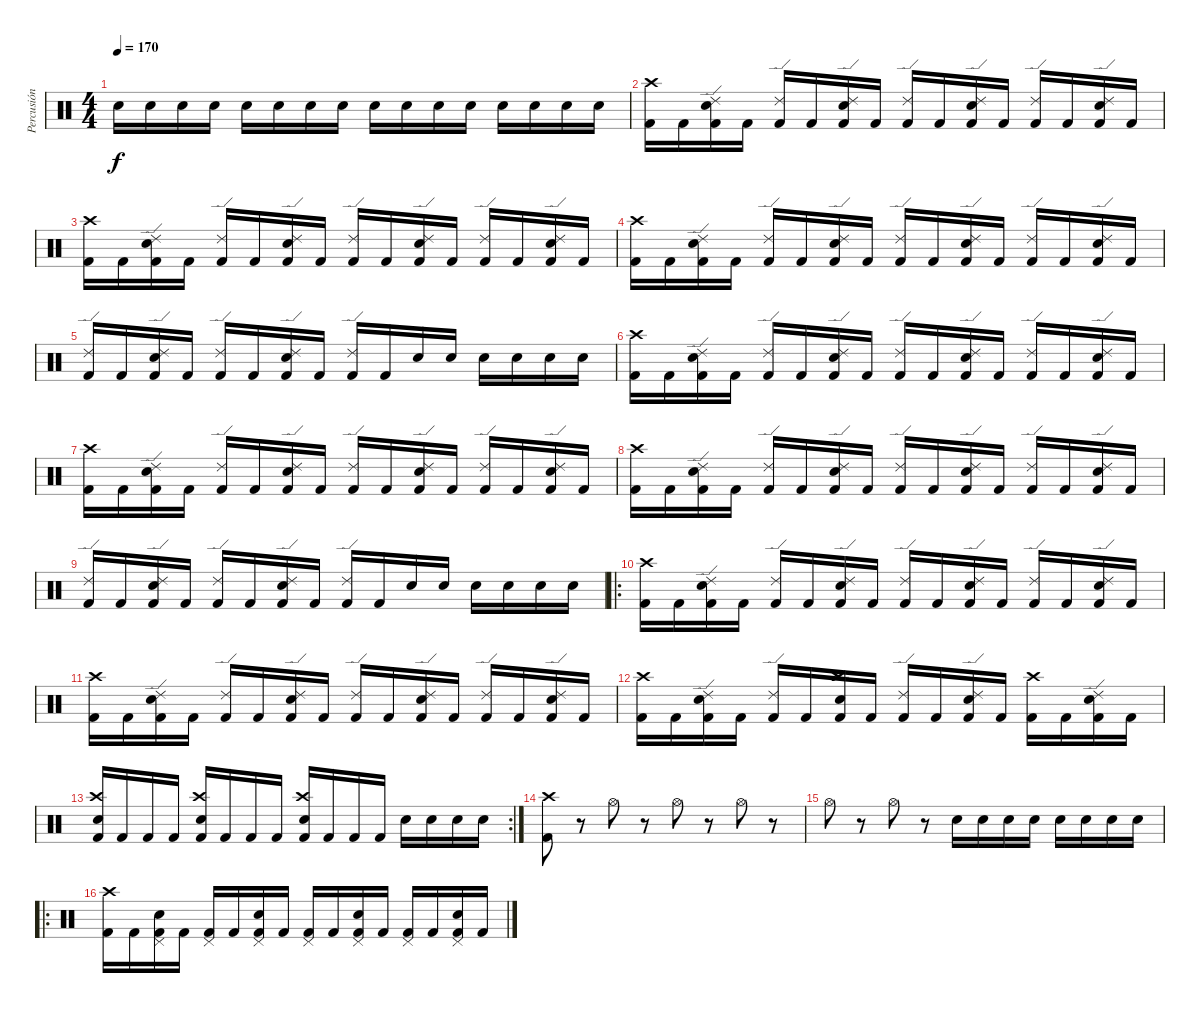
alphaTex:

\track ("Percusión" "Percusión") {instrument percussion}
\staff {score}
\articulation defaults
\ts (4 4)
\tempo 170
\clef neutral
\ks c "Electric Snare (hit)".16{dy f} "Electric Snare (hit)".16 "Electric Snare (hit)".16 "Electric Snare (hit)".16 "Electric Snare (hit)".16 "Electric Snare (hit)".16 "Electric Snare (hit)".16 "Electric Snare (hit)".16 "Electric Snare (hit)".16 "Electric Snare (hit)".16 "Electric Snare (hit)".16 "Electric Snare (hit)".16 "Electric Snare (hit)".16 "Electric Snare (hit)".16 "Electric Snare (hit)".16 "Electric Snare (hit)".16
|
("Crash high (hit)" "Kick (hit) 2").16 "Kick (hit) 2".16 ("Ride (edge) 2" "Kick (hit) 2" "Electric Snare (hit)").16 "Kick (hit) 2".16 ("Ride (edge) 2" "Kick (hit) 2").16 "Kick (hit) 2".16 ("Ride (edge) 2" "Kick (hit) 2" "Electric Snare (hit)").16 "Kick (hit) 2".16 ("Ride (edge) 2" "Kick (hit) 2").16 "Kick (hit) 2".16 ("Ride (edge) 2" "Kick (hit) 2" "Electric Snare (hit)").16 "Kick (hit) 2".16 ("Ride (edge) 2" "Kick (hit) 2").16 "Kick (hit) 2".16 ("Ride (edge) 2" "Kick (hit) 2" "Electric Snare (hit)").16 "Kick (hit) 2".16 |
("Crash high (hit)" "Kick (hit) 2").16 "Kick (hit) 2".16 ("Ride (edge) 2" "Kick (hit) 2" "Electric Snare (hit)").16 "Kick (hit) 2".16 ("Ride (edge) 2" "Kick (hit) 2").16 "Kick (hit) 2".16 ("Ride (edge) 2" "Kick (hit) 2" "Electric Snare (hit)").16 "Kick (hit) 2".16 ("Ride (edge) 2" "Kick (hit) 2").16 "Kick (hit) 2".16 ("Ride (edge) 2" "Kick (hit) 2" "Electric Snare (hit)").16 "Kick (hit) 2".16 ("Ride (edge) 2" "Kick (hit) 2").16 "Kick (hit) 2".16 ("Ride (edge) 2" "Kick (hit) 2" "Electric Snare (hit)").16 "Kick (hit) 2".16 |
("Crash high (hit)" "Kick (hit) 2").16 "Kick (hit) 2".16 ("Ride (edge) 2" "Kick (hit) 2" "Electric Snare (hit)").16 "Kick (hit) 2".16 ("Ride (edge) 2" "Kick (hit) 2").16 "Kick (hit) 2".16 ("Ride (edge) 2" "Kick (hit) 2" "Electric Snare (hit)").16 "Kick (hit) 2".16 ("Ride (edge) 2" "Kick (hit) 2").16 "Kick (hit) 2".16 ("Ride (edge) 2" "Kick (hit) 2" "Electric Snare (hit)").16 "Kick (hit) 2".16 ("Ride (edge) 2" "Kick (hit) 2").16 "Kick (hit) 2".16 ("Ride (edge) 2" "Kick (hit) 2" "Electric Snare (hit)").16 "Kick (hit) 2".16 |
("Ride (edge) 2" "Kick (hit) 2").16 "Kick (hit) 2".16 ("Ride (edge) 2" "Kick (hit) 2" "Electric Snare (hit)").16 "Kick (hit) 2".16 ("Ride (edge) 2" "Kick (hit) 2").16 "Kick (hit) 2".16 ("Ride (edge) 2" "Kick (hit) 2" "Electric Snare (hit)").16 "Kick (hit) 2".16 ("Ride (edge) 2" "Kick (hit) 2").16 "Kick (hit) 2".16 "Electric Snare (hit)".16 "Electric Snare (hit)".16 "Electric Snare (hit)".16 "Electric Snare (hit)".16 "Electric Snare (hit)".16 "Electric Snare (hit)".16 |
("Crash high (hit)" "Kick (hit) 2").16 "Kick (hit) 2".16 ("Ride (edge) 2" "Kick (hit) 2" "Electric Snare (hit)").16 "Kick (hit) 2".16 ("Ride (edge) 2" "Kick (hit) 2").16 "Kick (hit) 2".16 ("Ride (edge) 2" "Kick (hit) 2" "Electric Snare (hit)").16 "Kick (hit) 2".16 ("Ride (edge) 2" "Kick (hit) 2").16 "Kick (hit) 2".16 ("Ride (edge) 2" "Kick (hit) 2" "Electric Snare (hit)").16 "Kick (hit) 2".16 ("Ride (edge) 2" "Kick (hit) 2").16 "Kick (hit) 2".16 ("Ride (edge) 2" "Kick (hit) 2" "Electric Snare (hit)").16 "Kick (hit) 2".16 |
("Crash high (hit)" "Kick (hit) 2").16 "Kick (hit) 2".16 ("Ride (edge) 2" "Kick (hit) 2" "Electric Snare (hit)").16 "Kick (hit) 2".16 ("Ride (edge) 2" "Kick (hit) 2").16 "Kick (hit) 2".16 ("Ride (edge) 2" "Kick (hit) 2" "Electric Snare (hit)").16 "Kick (hit) 2".16 ("Ride (edge) 2" "Kick (hit) 2").16 "Kick (hit) 2".16 ("Ride (edge) 2" "Kick (hit) 2" "Electric Snare (hit)").16 "Kick (hit) 2".16 ("Ride (edge) 2" "Kick (hit) 2").16 "Kick (hit) 2".16 ("Ride (edge) 2" "Kick (hit) 2" "Electric Snare (hit)").16 "Kick (hit) 2".16 |
("Crash high (hit)" "Kick (hit) 2").16 "Kick (hit) 2".16 ("Ride (edge) 2" "Kick (hit) 2" "Electric Snare (hit)").16 "Kick (hit) 2".16 ("Ride (edge) 2" "Kick (hit) 2").16 "Kick (hit) 2".16 ("Ride (edge) 2" "Kick (hit) 2" "Electric Snare (hit)").16 "Kick (hit) 2".16 ("Ride (edge) 2" "Kick (hit) 2").16 "Kick (hit) 2".16 ("Ride (edge) 2" "Kick (hit) 2" "Electric Snare (hit)").16 "Kick (hit) 2".16 ("Ride (edge) 2" "Kick (hit) 2").16 "Kick (hit) 2".16 ("Ride (edge) 2" "Kick (hit) 2" "Electric Snare (hit)").16 "Kick (hit) 2".16 |
("Ride (edge) 2" "Kick (hit) 2").16 "Kick (hit) 2".16 ("Ride (edge) 2" "Kick (hit) 2" "Electric Snare (hit)").16 "Kick (hit) 2".16 ("Ride (edge) 2" "Kick (hit) 2").16 "Kick (hit) 2".16 ("Ride (edge) 2" "Kick (hit) 2" "Electric Snare (hit)").16 "Kick (hit) 2".16 ("Ride (edge) 2" "Kick (hit) 2").16 "Kick (hit) 2".16 "Electric Snare (hit)".16 "Electric Snare (hit)".16 "Electric Snare (hit)".16 "Electric Snare (hit)".16 "Electric Snare (hit)".16 "Electric Snare (hit)".16 |
\ro
("Crash high (hit)" "Kick (hit) 2").16 "Kick (hit) 2".16 ("Ride (edge) 2" "Kick (hit) 2" "Electric Snare (hit)").16 "Kick (hit) 2".16 ("Ride (edge) 2" "Kick (hit) 2").16 "Kick (hit) 2".16 ("Ride (edge) 2" "Kick (hit) 2" "Electric Snare (hit)").16 "Kick (hit) 2".16 ("Ride (edge) 2" "Kick (hit) 2").16 "Kick (hit) 2".16 ("Ride (edge) 2" "Kick (hit) 2" "Electric Snare (hit)").16 "Kick (hit) 2".16 ("Ride (edge) 2" "Kick (hit) 2").16 "Kick (hit) 2".16 ("Ride (edge) 2" "Kick (hit) 2" "Electric Snare (hit)").16 "Kick (hit) 2".16 |
("Crash high (hit)" "Kick (hit) 2").16 "Kick (hit) 2".16 ("Ride (edge) 2" "Kick (hit) 2" "Electric Snare (hit)").16 "Kick (hit) 2".16 ("Ride (edge) 2" "Kick (hit) 2").16 "Kick (hit) 2".16 ("Ride (edge) 2" "Kick (hit) 2" "Electric Snare (hit)").16 "Kick (hit) 2".16 ("Ride (edge) 2" "Kick (hit) 2").16 "Kick (hit) 2".16 ("Ride (edge) 2" "Kick (hit) 2" "Electric Snare (hit)").16 "Kick (hit) 2".16 ("Ride (edge) 2" "Kick (hit) 2").16 "Kick (hit) 2".16 ("Ride (edge) 2" "Kick (hit) 2" "Electric Snare (hit)").16 "Kick (hit) 2".16 |
("Crash high (hit)" "Kick (hit) 2").16 "Kick (hit) 2".16 ("Ride (edge) 2" "Kick (hit) 2" "Electric Snare (hit)").16 "Kick (hit) 2".16 ("Ride (edge) 2" "Kick (hit) 2").16 "Kick (hit) 2".16 ("Crash high (hit)" "Kick (hit) 2" "Electric Snare (hit)").16 "Kick (hit) 2".16 ("Ride (edge) 2" "Kick (hit) 2").16 "Kick (hit) 2".16 ("Ride (edge) 2" "Kick (hit) 2" "Electric Snare (hit)").16 "Kick (hit) 2".16 ("Crash high (hit)" "Kick (hit) 2").16 "Kick (hit) 2".16 ("Ride (edge) 2" "Kick (hit) 2" "Electric Snare (hit)").16 "Kick (hit) 2".16 |
\rc 2
("Crash high (hit)" "Kick (hit) 2" "Electric Snare (hit)").16 "Kick (hit) 2".16 "Kick (hit) 2".16 "Kick (hit) 2".16 ("Crash high (hit)" "Kick (hit) 2" "Electric Snare (hit)").16 "Kick (hit) 2".16 "Kick (hit) 2".16 "Kick (hit) 2".16 ("Crash high (hit)" "Kick (hit) 2" "Electric Snare (hit)").16 "Kick (hit) 2".16 "Kick (hit) 2".16 "Kick (hit) 2".16 "Electric Snare (hit)".16 "Electric Snare (hit)".16 "Electric Snare (hit)".16 "Electric Snare (hit)".16 |
("Crash high (hit)" "Kick (hit) 2").8 r.8 "Hi-Hat (open)".8 r.8 "Hi-Hat (open)".8 r.8 "Hi-Hat (open)".8 r.8 |
"Hi-Hat (open)".8 r.8 "Hi-Hat (open)".8 r.8 "Electric Snare (hit)".16 "Electric Snare (hit)".16 "Electric Snare (hit)".16 "Electric Snare (hit)".16 "Electric Snare (hit)".16 "Electric Snare (hit)".16 "Electric Snare (hit)".16 "Electric Snare (hit)".16 |
\ro
("Crash high (hit)" "Kick (hit) 2").16 "Kick (hit) 2".16 ("Pedal Hi-Hat (hit)" "Kick (hit) 2" "Electric Snare (hit)").16 "Kick (hit) 2".16 ("Pedal Hi-Hat (hit)" "Kick (hit) 2").16 "Kick (hit) 2".16 ("Pedal Hi-Hat (hit)" "Kick (hit) 2" "Electric Snare (hit)").16 "Kick (hit) 2".16 ("Pedal Hi-Hat (hit)" "Kick (hit) 2").16 "Kick (hit) 2".16 ("Pedal Hi-Hat (hit)" "Kick (hit) 2" "Electric Snare (hit)").16 "Kick (hit) 2".16 ("Pedal Hi-Hat (hit)" "Kick (hit) 2").16 "Kick (hit) 2".16 ("Pedal Hi-Hat (hit)" "Kick (hit) 2" "Electric Snare (hit)").16 "Kick (hit) 2".16
